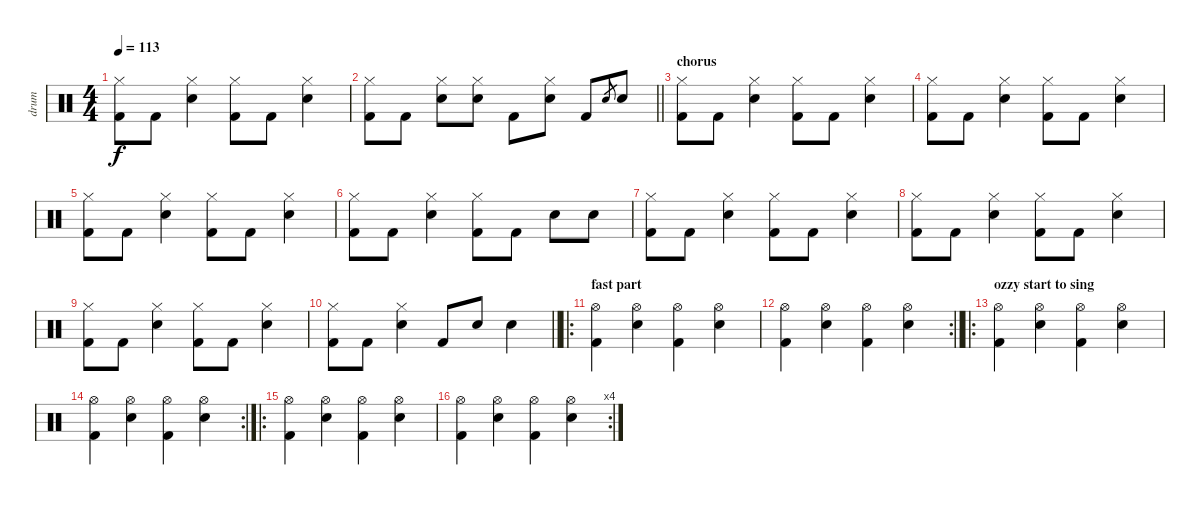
\track ("drum" "drum") {instrument percussion}
\staff {score}
\articulation defaults
\ts (4 4)
\tempo 113
\clef neutral
\ks c
("Kick (hit) 2" "Hi-Hat (closed)").8{dy f} "Kick (hit) 2".8 ("Electric Snare (hit)" "Hi-Hat (closed)").4 ("Kick (hit) 2" "Hi-Hat (closed)").8 "Kick (hit) 2".8 ("Electric Snare (hit)" "Hi-Hat (closed)").4 |
\barLineRight lightlight
("Kick (hit) 2" "Hi-Hat (closed)").8 "Kick (hit) 2".8 ("Electric Snare (hit)" "Hi-Hat (closed)").8 ("Electric Snare (hit)" "Hi-Hat (closed)").8 "Kick (hit) 2".8 ("Electric Snare (hit)" "Hi-Hat (closed)").8 "Kick (hit) 2".8 "Electric Snare (hit)".8{gr} "Electric Snare (hit)".8 |
\section ("" "chorus")
("Kick (hit) 2" "Hi-Hat (closed)").8 "Kick (hit) 2".8 ("Electric Snare (hit)" "Hi-Hat (closed)").4 ("Kick (hit) 2" "Hi-Hat (closed)").8 "Kick (hit) 2".8 ("Electric Snare (hit)" "Hi-Hat (closed)").4 |
("Kick (hit) 2" "Hi-Hat (closed)").8 "Kick (hit) 2".8 ("Electric Snare (hit)" "Hi-Hat (closed)").4 ("Kick (hit) 2" "Hi-Hat (closed)").8 "Kick (hit) 2".8 ("Electric Snare (hit)" "Hi-Hat (closed)").4 |
("Kick (hit) 2" "Hi-Hat (closed)").8 "Kick (hit) 2".8 ("Electric Snare (hit)" "Hi-Hat (closed)").4 ("Kick (hit) 2" "Hi-Hat (closed)").8 "Kick (hit) 2".8 ("Electric Snare (hit)" "Hi-Hat (closed)").4 |
("Kick (hit) 2" "Hi-Hat (closed)").8 "Kick (hit) 2".8 ("Electric Snare (hit)" "Hi-Hat (closed)").4 ("Kick (hit) 2" "Hi-Hat (closed)").8 "Kick (hit) 2".8 "Electric Snare (hit)".8 "Electric Snare (hit)".8 |
("Kick (hit) 2" "Hi-Hat (closed)").8 "Kick (hit) 2".8 ("Electric Snare (hit)" "Hi-Hat (closed)").4 ("Kick (hit) 2" "Hi-Hat (closed)").8 "Kick (hit) 2".8 ("Electric Snare (hit)" "Hi-Hat (closed)").4 |
("Kick (hit) 2" "Hi-Hat (closed)").8 "Kick (hit) 2".8 ("Electric Snare (hit)" "Hi-Hat (closed)").4 ("Kick (hit) 2" "Hi-Hat (closed)").8 "Kick (hit) 2".8 ("Electric Snare (hit)" "Hi-Hat (closed)").4 |
("Kick (hit) 2" "Hi-Hat (closed)").8 "Kick (hit) 2".8 ("Electric Snare (hit)" "Hi-Hat (closed)").4 ("Kick (hit) 2" "Hi-Hat (closed)").8 "Kick (hit) 2".8 ("Electric Snare (hit)" "Hi-Hat (closed)").4 |
\barLineRight lightlight
("Kick (hit) 2" "Hi-Hat (closed)").8 "Kick (hit) 2".8 ("Electric Snare (hit)" "Hi-Hat (closed)").4 "Kick (hit) 2".8 "Electric Snare (hit)".8 "Electric Snare (hit)".4 |
\ro
\section ("" "fast part")
("Hi-Hat (open)" "Kick (hit) 2").4 ("Hi-Hat (open)" "Snare (hit) 2").4 ("Hi-Hat (open)" "Kick (hit) 2").4 ("Hi-Hat (open)" "Snare (hit) 2").4 |
\rc 2
\barLineRight lightlight
("Hi-Hat (open)" "Kick (hit) 2").4 ("Hi-Hat (open)" "Snare (hit) 2").4 ("Hi-Hat (open)" "Kick (hit) 2").4 ("Hi-Hat (open)" "Snare (hit) 2").4 |
\ro
\section ("" "ozzy start to sing")
("Hi-Hat (open)" "Kick (hit) 2").4 ("Hi-Hat (open)" "Snare (hit) 2").4 ("Hi-Hat (open)" "Kick (hit) 2").4 ("Hi-Hat (open)" "Snare (hit) 2").4 |
\rc 2
("Hi-Hat (open)" "Kick (hit) 2").4 ("Hi-Hat (open)" "Snare (hit) 2").4 ("Hi-Hat (open)" "Kick (hit) 2").4 ("Hi-Hat (open)" "Snare (hit) 2").4 |
\ro
("Hi-Hat (open)" "Kick (hit) 2").4 ("Hi-Hat (open)" "Snare (hit) 2").4 ("Hi-Hat (open)" "Kick (hit) 2").4 ("Hi-Hat (open)" "Snare (hit) 2").4 |
\rc 4
("Hi-Hat (open)" "Kick (hit) 2").4 ("Hi-Hat (open)" "Snare (hit) 2").4 ("Hi-Hat (open)" "Kick (hit) 2").4 ("Hi-Hat (open)" "Snare (hit) 2").4
